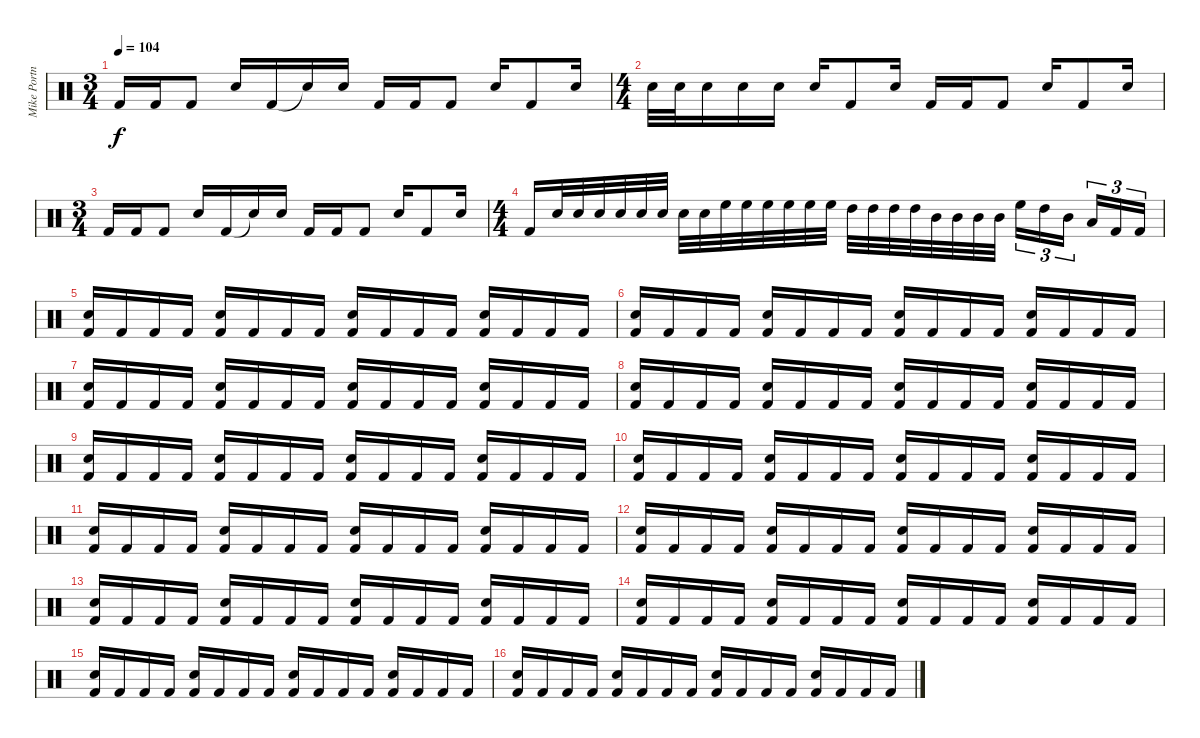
\track ("Mike Portnoy" "Mike Portn") {instrument percussion}
\staff {score}
\articulation defaults
\ts (3 4)
\tempo 104
\clef neutral
\ks c "Kick (hit) 2".16{dy f} "Kick (hit) 2".16 "Kick (hit) 2".8 "Snare (hit) 2".16 "Kick (hit) 2".16 "Snare (hit)"{t}.16 "Snare (hit) 2".16 "Kick (hit) 2".16 "Kick (hit) 2".16 "Kick (hit) 2".8 "Snare (hit) 2".16 "Kick (hit) 2".8 "Snare (hit) 2".16
|
\ts (4 4)
"Snare (hit) 2".32 "Snare (hit) 2".32 "Snare (hit) 2".16 "Snare (hit) 2".16 "Snare (hit) 2".16 "Snare (hit) 2".16 "Kick (hit) 2".8 "Snare (hit) 2".16 "Kick (hit) 2".16 "Kick (hit) 2".16 "Kick (hit) 2".8 "Snare (hit) 2".16 "Kick (hit) 2".8 "Snare (hit) 2".16 |
\ts (3 4)
"Kick (hit) 2".16 "Kick (hit) 2".16 "Kick (hit) 2".8 "Snare (hit) 2".16 "Kick (hit) 2".16 "Snare (hit)"{t}.16 "Snare (hit) 2".16 "Kick (hit) 2".16 "Kick (hit) 2".16 "Kick (hit) 2".8 "Snare (hit) 2".16 "Kick (hit) 2".8 "Snare (hit) 2".16 |
\ts (4 4)
"Kick (hit) 2".16 "Snare (hit) 2".32 "Snare (hit) 2".32 "Snare (hit) 2".32 "Snare (hit) 2".32 "Snare (hit) 2".32 "Snare (hit) 2".32 "Snare (hit) 2".32 "Snare (hit) 2".32 "High Floor Tom (hit)".32 "High Floor Tom (hit)".32 "High Floor Tom (hit)".32 "High Floor Tom (hit)".32 "High Floor Tom (hit)".32 "High Floor Tom (hit)".32 "High Tom (hit)".32 "High Tom (hit)".32 "High Tom (hit)".32 "High Tom (hit)".32 "Mid Tom (hit)".32 "Mid Tom (hit)".32 "Mid Tom (hit)".32 "Mid Tom (hit)".32 "High Floor Tom (hit)".16{tu (3 2)} "High Tom (hit)".16{tu (3 2)} "Mid Tom (hit)".16{tu (3 2)} "Low Tom (hit)".16{tu (3 2)} "Kick (hit) 2".16{tu (3 2)} "Kick (hit) 2".16{tu (3 2)} |
("Snare (hit) 2" "Kick (hit) 2").16 "Kick (hit) 2".16 "Kick (hit) 2".16 "Kick (hit) 2".16 ("Snare (hit) 2" "Kick (hit) 2").16 "Kick (hit) 2".16 "Kick (hit) 2".16 "Kick (hit) 2".16 ("Snare (hit) 2" "Kick (hit) 2").16 "Kick (hit) 2".16 "Kick (hit) 2".16 "Kick (hit) 2".16 ("Snare (hit) 2" "Kick (hit) 2").16 "Kick (hit) 2".16 "Kick (hit) 2".16 "Kick (hit) 2".16 |
("Snare (hit) 2" "Kick (hit) 2").16 "Kick (hit) 2".16 "Kick (hit) 2".16 "Kick (hit) 2".16 ("Snare (hit) 2" "Kick (hit) 2").16 "Kick (hit) 2".16 "Kick (hit) 2".16 "Kick (hit) 2".16 ("Snare (hit) 2" "Kick (hit) 2").16 "Kick (hit) 2".16 "Kick (hit) 2".16 "Kick (hit) 2".16 ("Snare (hit) 2" "Kick (hit) 2").16 "Kick (hit) 2".16 "Kick (hit) 2".16 "Kick (hit) 2".16 |
("Snare (hit) 2" "Kick (hit) 2").16 "Kick (hit) 2".16 "Kick (hit) 2".16 "Kick (hit) 2".16 ("Snare (hit) 2" "Kick (hit) 2").16 "Kick (hit) 2".16 "Kick (hit) 2".16 "Kick (hit) 2".16 ("Snare (hit) 2" "Kick (hit) 2").16 "Kick (hit) 2".16 "Kick (hit) 2".16 "Kick (hit) 2".16 ("Snare (hit) 2" "Kick (hit) 2").16 "Kick (hit) 2".16 "Kick (hit) 2".16 "Kick (hit) 2".16 |
("Snare (hit) 2" "Kick (hit) 2").16 "Kick (hit) 2".16 "Kick (hit) 2".16 "Kick (hit) 2".16 ("Snare (hit) 2" "Kick (hit) 2").16 "Kick (hit) 2".16 "Kick (hit) 2".16 "Kick (hit) 2".16 ("Snare (hit) 2" "Kick (hit) 2").16 "Kick (hit) 2".16 "Kick (hit) 2".16 "Kick (hit) 2".16 ("Snare (hit) 2" "Kick (hit) 2").16 "Kick (hit) 2".16 "Kick (hit) 2".16 "Kick (hit) 2".16 |
("Snare (hit) 2" "Kick (hit) 2").16 "Kick (hit) 2".16 "Kick (hit) 2".16 "Kick (hit) 2".16 ("Snare (hit) 2" "Kick (hit) 2").16 "Kick (hit) 2".16 "Kick (hit) 2".16 "Kick (hit) 2".16 ("Snare (hit) 2" "Kick (hit) 2").16 "Kick (hit) 2".16 "Kick (hit) 2".16 "Kick (hit) 2".16 ("Snare (hit) 2" "Kick (hit) 2").16 "Kick (hit) 2".16 "Kick (hit) 2".16 "Kick (hit) 2".16 |
("Snare (hit) 2" "Kick (hit) 2").16 "Kick (hit) 2".16 "Kick (hit) 2".16 "Kick (hit) 2".16 ("Snare (hit) 2" "Kick (hit) 2").16 "Kick (hit) 2".16 "Kick (hit) 2".16 "Kick (hit) 2".16 ("Snare (hit) 2" "Kick (hit) 2").16 "Kick (hit) 2".16 "Kick (hit) 2".16 "Kick (hit) 2".16 ("Snare (hit) 2" "Kick (hit) 2").16 "Kick (hit) 2".16 "Kick (hit) 2".16 "Kick (hit) 2".16 |
("Snare (hit) 2" "Kick (hit) 2").16 "Kick (hit) 2".16 "Kick (hit) 2".16 "Kick (hit) 2".16 ("Snare (hit) 2" "Kick (hit) 2").16 "Kick (hit) 2".16 "Kick (hit) 2".16 "Kick (hit) 2".16 ("Snare (hit) 2" "Kick (hit) 2").16 "Kick (hit) 2".16 "Kick (hit) 2".16 "Kick (hit) 2".16 ("Snare (hit) 2" "Kick (hit) 2").16 "Kick (hit) 2".16 "Kick (hit) 2".16 "Kick (hit) 2".16 |
("Snare (hit) 2" "Kick (hit) 2").16 "Kick (hit) 2".16 "Kick (hit) 2".16 "Kick (hit) 2".16 ("Snare (hit) 2" "Kick (hit) 2").16 "Kick (hit) 2".16 "Kick (hit) 2".16 "Kick (hit) 2".16 ("Snare (hit) 2" "Kick (hit) 2").16 "Kick (hit) 2".16 "Kick (hit) 2".16 "Kick (hit) 2".16 ("Snare (hit) 2" "Kick (hit) 2").16 "Kick (hit) 2".16 "Kick (hit) 2".16 "Kick (hit) 2".16 |
("Snare (hit) 2" "Kick (hit) 2").16 "Kick (hit) 2".16 "Kick (hit) 2".16 "Kick (hit) 2".16 ("Snare (hit) 2" "Kick (hit) 2").16 "Kick (hit) 2".16 "Kick (hit) 2".16 "Kick (hit) 2".16 ("Snare (hit) 2" "Kick (hit) 2").16 "Kick (hit) 2".16 "Kick (hit) 2".16 "Kick (hit) 2".16 ("Snare (hit) 2" "Kick (hit) 2").16 "Kick (hit) 2".16 "Kick (hit) 2".16 "Kick (hit) 2".16 |
("Snare (hit) 2" "Kick (hit) 2").16 "Kick (hit) 2".16 "Kick (hit) 2".16 "Kick (hit) 2".16 ("Snare (hit) 2" "Kick (hit) 2").16 "Kick (hit) 2".16 "Kick (hit) 2".16 "Kick (hit) 2".16 ("Snare (hit) 2" "Kick (hit) 2").16 "Kick (hit) 2".16 "Kick (hit) 2".16 "Kick (hit) 2".16 ("Snare (hit) 2" "Kick (hit) 2").16 "Kick (hit) 2".16 "Kick (hit) 2".16 "Kick (hit) 2".16 |
("Snare (hit) 2" "Kick (hit) 2").16 "Kick (hit) 2".16 "Kick (hit) 2".16 "Kick (hit) 2".16 ("Snare (hit) 2" "Kick (hit) 2").16 "Kick (hit) 2".16 "Kick (hit) 2".16 "Kick (hit) 2".16 ("Snare (hit) 2" "Kick (hit) 2").16 "Kick (hit) 2".16 "Kick (hit) 2".16 "Kick (hit) 2".16 ("Snare (hit) 2" "Kick (hit) 2").16 "Kick (hit) 2".16 "Kick (hit) 2".16 "Kick (hit) 2".16 |
("Snare (hit) 2" "Kick (hit) 2").16 "Kick (hit) 2".16 "Kick (hit) 2".16 "Kick (hit) 2".16 ("Snare (hit) 2" "Kick (hit) 2").16 "Kick (hit) 2".16 "Kick (hit) 2".16 "Kick (hit) 2".16 ("Snare (hit) 2" "Kick (hit) 2").16 "Kick (hit) 2".16 "Kick (hit) 2".16 "Kick (hit) 2".16 ("Snare (hit) 2" "Kick (hit) 2").16 "Kick (hit) 2".16 "Kick (hit) 2".16 "Kick (hit) 2".16
